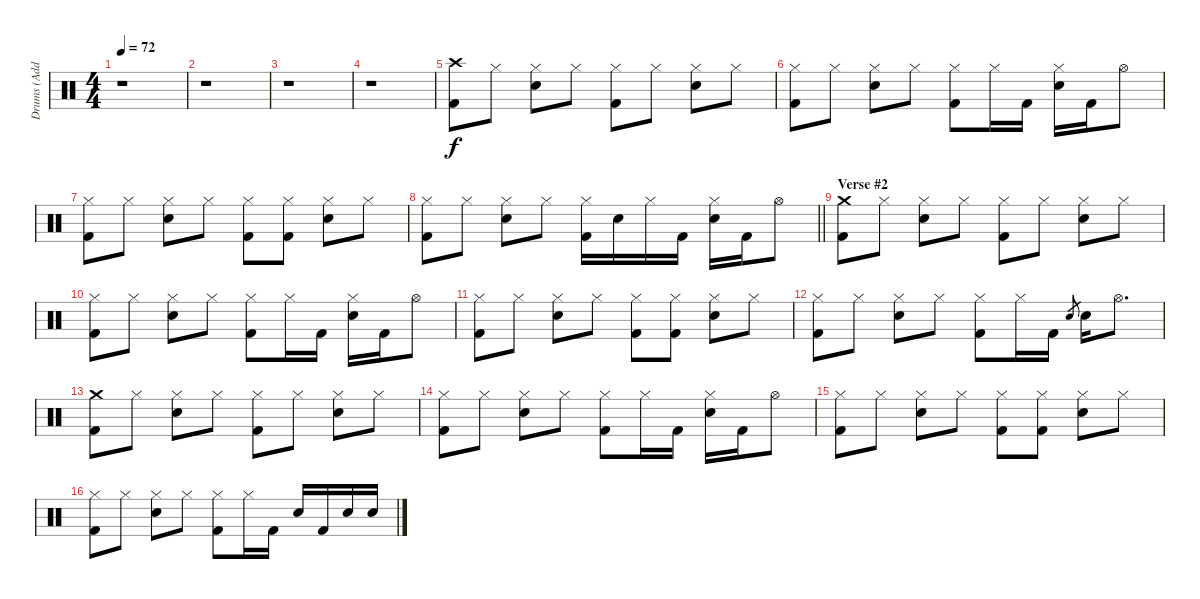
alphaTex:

\track ("Drums (Added by Leonardo_codev)" "Drums (Add") {instrument percussion}
\staff {score}
\articulation defaults
\ts (4 4)
\tempo 72
\clef neutral
\ks c
r.1{dy f} |
r.1 |
r.1 |
r.1 |
("Crash high (hit)" "Kick (hit) 2").8 "Hi-Hat (closed)".8 ("Hi-Hat (closed)" "Electric Snare (hit)").8 "Hi-Hat (closed)".8 ("Hi-Hat (closed)" "Kick (hit) 2").8 "Hi-Hat (closed)".8 ("Hi-Hat (closed)" "Electric Snare (hit)").8 "Hi-Hat (closed)".8 |
("Hi-Hat (closed)" "Kick (hit) 2").8 "Hi-Hat (closed)".8 ("Hi-Hat (closed)" "Electric Snare (hit)").8 "Hi-Hat (closed)".8 ("Hi-Hat (closed)" "Kick (hit) 2").8 "Hi-Hat (closed)".16 "Kick (hit) 2".16 ("Hi-Hat (closed)" "Electric Snare (hit)").16 "Kick (hit) 2".16 "Hi-Hat (open)".8 |
("Hi-Hat (closed)" "Kick (hit) 2").8 "Hi-Hat (closed)".8 ("Hi-Hat (closed)" "Electric Snare (hit)").8 "Hi-Hat (closed)".8 ("Hi-Hat (closed)" "Kick (hit) 2").8 ("Hi-Hat (closed)" "Kick (hit) 2").8 ("Hi-Hat (closed)" "Electric Snare (hit)").8 "Hi-Hat (closed)".8 |
\barLineRight lightlight
("Hi-Hat (closed)" "Kick (hit) 2").8 "Hi-Hat (closed)".8 ("Hi-Hat (closed)" "Electric Snare (hit)").8 "Hi-Hat (closed)".8 ("Hi-Hat (closed)" "Kick (hit) 2").16 "Electric Snare (hit)".16 "Hi-Hat (closed)".16 "Kick (hit) 2".16 ("Hi-Hat (closed)" "Electric Snare (hit)").16 "Kick (hit) 2".16 "Hi-Hat (open)".8 |
\section ("" "Verse #2")
("Crash medium (hit)" "Kick (hit) 2").8 "Hi-Hat (closed)".8 ("Hi-Hat (closed)" "Electric Snare (hit)").8 "Hi-Hat (closed)".8 ("Hi-Hat (closed)" "Kick (hit) 2").8 "Hi-Hat (closed)".8 ("Hi-Hat (closed)" "Electric Snare (hit)").8 "Hi-Hat (closed)".8 |
("Hi-Hat (closed)" "Kick (hit) 2").8 "Hi-Hat (closed)".8 ("Hi-Hat (closed)" "Electric Snare (hit)").8 "Hi-Hat (closed)".8 ("Hi-Hat (closed)" "Kick (hit) 2").8 "Hi-Hat (closed)".16 "Kick (hit) 2".16 ("Hi-Hat (closed)" "Electric Snare (hit)").16 "Kick (hit) 2".16 "Hi-Hat (open)".8 |
("Hi-Hat (closed)" "Kick (hit) 2").8 "Hi-Hat (closed)".8 ("Hi-Hat (closed)" "Electric Snare (hit)").8 "Hi-Hat (closed)".8 ("Hi-Hat (closed)" "Kick (hit) 2").8 ("Hi-Hat (closed)" "Kick (hit) 2").8 ("Hi-Hat (closed)" "Electric Snare (hit)").8 "Hi-Hat (closed)".8 |
("Hi-Hat (closed)" "Kick (hit) 2").8 "Hi-Hat (closed)".8 ("Hi-Hat (closed)" "Electric Snare (hit)").8 "Hi-Hat (closed)".8 ("Hi-Hat (closed)" "Kick (hit) 2").8 "Hi-Hat (closed)".16 "Kick (hit) 2".16 "Electric Snare (hit)".8{gr} "Electric Snare (hit)".16 "Hi-Hat (open)".8{d} |
("Crash medium (hit)" "Kick (hit) 2").8 "Hi-Hat (closed)".8 ("Hi-Hat (closed)" "Electric Snare (hit)").8 "Hi-Hat (closed)".8 ("Hi-Hat (closed)" "Kick (hit) 2").8 "Hi-Hat (closed)".8 ("Hi-Hat (closed)" "Electric Snare (hit)").8 "Hi-Hat (closed)".8 |
("Hi-Hat (closed)" "Kick (hit) 2").8 "Hi-Hat (closed)".8 ("Hi-Hat (closed)" "Electric Snare (hit)").8 "Hi-Hat (closed)".8 ("Hi-Hat (closed)" "Kick (hit) 2").8 "Hi-Hat (closed)".16 "Kick (hit) 2".16 ("Hi-Hat (closed)" "Electric Snare (hit)").16 "Kick (hit) 2".16 "Hi-Hat (open)".8 |
("Hi-Hat (closed)" "Kick (hit) 2").8 "Hi-Hat (closed)".8 ("Hi-Hat (closed)" "Electric Snare (hit)").8 "Hi-Hat (closed)".8 ("Hi-Hat (closed)" "Kick (hit) 2").8 ("Hi-Hat (closed)" "Kick (hit) 2").8 ("Hi-Hat (closed)" "Electric Snare (hit)").8 "Hi-Hat (closed)".8 |
("Hi-Hat (closed)" "Kick (hit) 2").8 "Hi-Hat (closed)".8 ("Hi-Hat (closed)" "Electric Snare (hit)").8 "Hi-Hat (closed)".8 ("Hi-Hat (closed)" "Kick (hit) 2").8 "Hi-Hat (closed)".16 "Kick (hit) 2".16 "Electric Snare (hit)".16 "Kick (hit) 2".16 "Electric Snare (hit)".16 "Electric Snare (hit)".16
